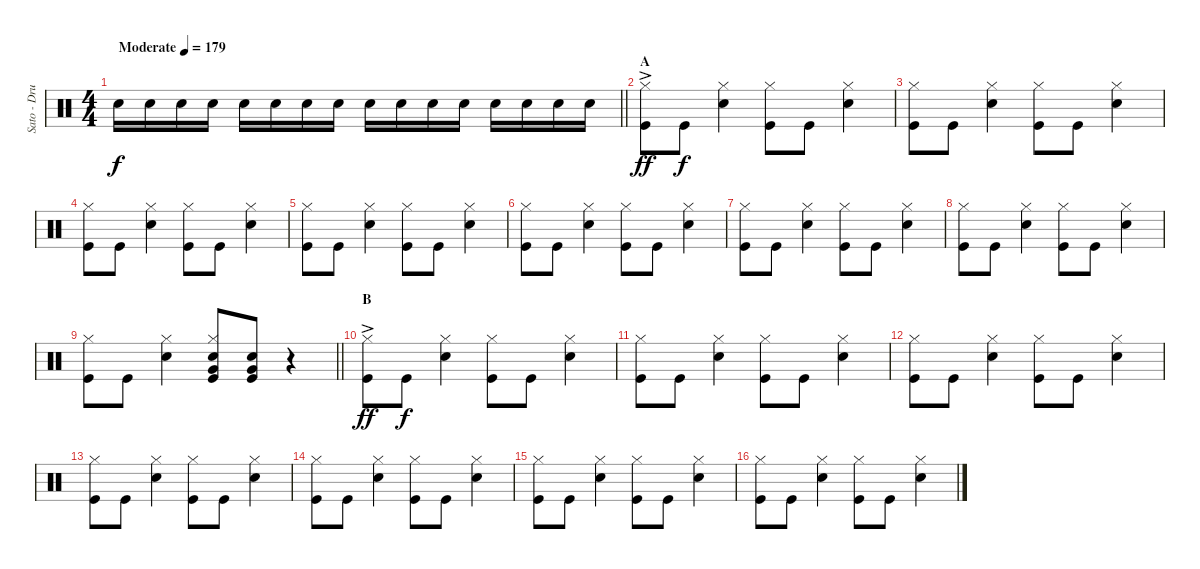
\track ("Sato - Drums" "Sato - Dru") {instrument percussion}
\staff {score}
\articulation defaults
\ts (4 4)
\tempo (179 "Moderate")
\clef neutral
\barLineRight lightlight
\ks c "Electric Snare (hit)".16{dy f} "Electric Snare (hit)".16 "Electric Snare (hit)".16 "Electric Snare (hit)".16 "Electric Snare (hit)".16 "Electric Snare (hit)".16 "Electric Snare (hit)".16 "Electric Snare (hit)".16 "Electric Snare (hit)".16 "Electric Snare (hit)".16 "Electric Snare (hit)".16 "Electric Snare (hit)".16 "Electric Snare (hit)".16 "Electric Snare (hit)".16 "Electric Snare (hit)".16 "Electric Snare (hit)".16
|
\section ("" "A")
("Hi-Hat (closed)"{ac} "Kick (hit)"{ac}).8{dy ff} "Kick (hit)".8{dy f} ("Hi-Hat (closed)" "Electric Snare (hit)").4 ("Hi-Hat (closed)" "Kick (hit)").8 "Kick (hit)".8 ("Hi-Hat (closed)" "Electric Snare (hit)").4 |
("Hi-Hat (closed)" "Kick (hit)").8 "Kick (hit)".8 ("Hi-Hat (closed)" "Electric Snare (hit)").4 ("Hi-Hat (closed)" "Kick (hit)").8 "Kick (hit)".8 ("Hi-Hat (closed)" "Electric Snare (hit)").4 |
("Hi-Hat (closed)" "Kick (hit)").8 "Kick (hit)".8 ("Hi-Hat (closed)" "Electric Snare (hit)").4 ("Hi-Hat (closed)" "Kick (hit)").8 "Kick (hit)".8 ("Hi-Hat (closed)" "Electric Snare (hit)").4 |
("Hi-Hat (closed)" "Kick (hit)").8 "Kick (hit)".8 ("Hi-Hat (closed)" "Electric Snare (hit)").4 ("Hi-Hat (closed)" "Kick (hit)").8 "Kick (hit)".8 ("Hi-Hat (closed)" "Electric Snare (hit)").4 |
("Hi-Hat (closed)" "Kick (hit)").8 "Kick (hit)".8 ("Hi-Hat (closed)" "Electric Snare (hit)").4 ("Hi-Hat (closed)" "Kick (hit)").8 "Kick (hit)".8 ("Hi-Hat (closed)" "Electric Snare (hit)").4 |
("Hi-Hat (closed)" "Kick (hit)").8 "Kick (hit)".8 ("Hi-Hat (closed)" "Electric Snare (hit)").4 ("Hi-Hat (closed)" "Kick (hit)").8 "Kick (hit)".8 ("Hi-Hat (closed)" "Electric Snare (hit)").4 |
("Hi-Hat (closed)" "Kick (hit)").8 "Kick (hit)".8 ("Hi-Hat (closed)" "Electric Snare (hit)").4 ("Hi-Hat (closed)" "Kick (hit)").8 "Kick (hit)".8 ("Hi-Hat (closed)" "Electric Snare (hit)").4 |
\barLineRight lightlight
("Hi-Hat (closed)" "Kick (hit)").8 "Kick (hit)".8 ("Hi-Hat (closed)" "Electric Snare (hit)").4 ("Hi-Hat (closed)" "Electric Snare (hit)" "Very Low Tom (hit)" "Kick (hit)").8 ("Electric Snare (hit)" "Very Low Tom (hit)" "Kick (hit)").8 r.4 |
\section ("" "B")
("Hi-Hat (closed)"{ac} "Kick (hit)"{ac}).8{dy ff} "Kick (hit)".8{dy f} ("Hi-Hat (closed)" "Electric Snare (hit)").4 ("Hi-Hat (closed)" "Kick (hit)").8 "Kick (hit)".8 ("Hi-Hat (closed)" "Electric Snare (hit)").4 |
("Hi-Hat (closed)" "Kick (hit)").8 "Kick (hit)".8 ("Hi-Hat (closed)" "Electric Snare (hit)").4 ("Hi-Hat (closed)" "Kick (hit)").8 "Kick (hit)".8 ("Hi-Hat (closed)" "Electric Snare (hit)").4 |
("Hi-Hat (closed)" "Kick (hit)").8 "Kick (hit)".8 ("Hi-Hat (closed)" "Electric Snare (hit)").4 ("Hi-Hat (closed)" "Kick (hit)").8 "Kick (hit)".8 ("Hi-Hat (closed)" "Electric Snare (hit)").4 |
("Hi-Hat (closed)" "Kick (hit)").8 "Kick (hit)".8 ("Hi-Hat (closed)" "Electric Snare (hit)").4 ("Hi-Hat (closed)" "Kick (hit)").8 "Kick (hit)".8 ("Hi-Hat (closed)" "Electric Snare (hit)").4 |
("Hi-Hat (closed)" "Kick (hit)").8 "Kick (hit)".8 ("Hi-Hat (closed)" "Electric Snare (hit)").4 ("Hi-Hat (closed)" "Kick (hit)").8 "Kick (hit)".8 ("Hi-Hat (closed)" "Electric Snare (hit)").4 |
("Hi-Hat (closed)" "Kick (hit)").8 "Kick (hit)".8 ("Hi-Hat (closed)" "Electric Snare (hit)").4 ("Hi-Hat (closed)" "Kick (hit)").8 "Kick (hit)".8 ("Hi-Hat (closed)" "Electric Snare (hit)").4 |
("Hi-Hat (closed)" "Kick (hit)").8 "Kick (hit)".8 ("Hi-Hat (closed)" "Electric Snare (hit)").4 ("Hi-Hat (closed)" "Kick (hit)").8 "Kick (hit)".8 ("Hi-Hat (closed)" "Electric Snare (hit)").4
